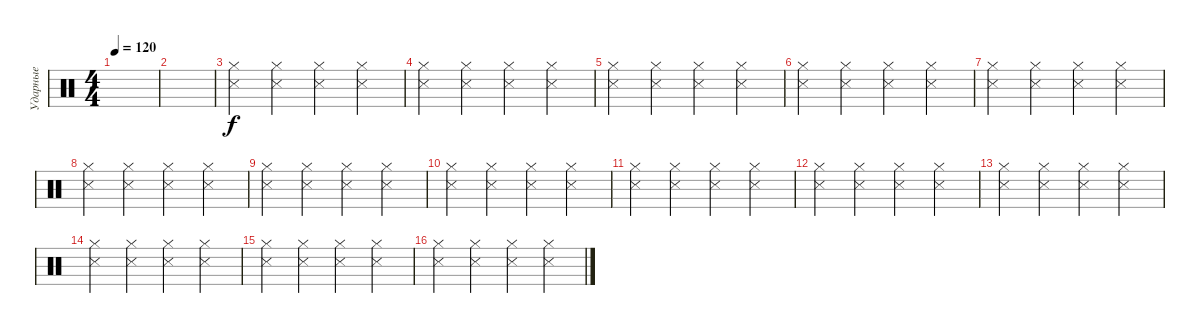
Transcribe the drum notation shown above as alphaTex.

\track ("Ударные" "Ударные") {instrument percussion}
\staff {score}
\articulation defaults
\ts (4 4)
\tempo 120
\clef neutral
\ks c
|
|
("Hi-Hat (closed)" "Snare (side stick) 3").4 ("Hi-Hat (closed)" "Snare (side stick) 3").4 ("Hi-Hat (closed)" "Snare (side stick) 3").4 ("Hi-Hat (closed)" "Snare (side stick) 3").4 |
("Hi-Hat (closed)" "Snare (side stick) 3").4 ("Hi-Hat (closed)" "Snare (side stick) 3").4 ("Hi-Hat (closed)" "Snare (side stick) 3").4 ("Hi-Hat (closed)" "Snare (side stick) 3").4 |
("Hi-Hat (closed)" "Snare (side stick) 3").4 ("Hi-Hat (closed)" "Snare (side stick) 3").4 ("Hi-Hat (closed)" "Snare (side stick) 3").4 ("Hi-Hat (closed)" "Snare (side stick) 3").4 |
("Hi-Hat (closed)" "Snare (side stick) 3").4 ("Hi-Hat (closed)" "Snare (side stick) 3").4 ("Hi-Hat (closed)" "Snare (side stick) 3").4 ("Hi-Hat (closed)" "Snare (side stick) 3").4 |
("Hi-Hat (closed)" "Snare (side stick) 3").4 ("Hi-Hat (closed)" "Snare (side stick) 3").4 ("Hi-Hat (closed)" "Snare (side stick) 3").4 ("Hi-Hat (closed)" "Snare (side stick) 3").4 |
("Hi-Hat (closed)" "Snare (side stick) 3").4 ("Hi-Hat (closed)" "Snare (side stick) 3").4 ("Hi-Hat (closed)" "Snare (side stick) 3").4 ("Hi-Hat (closed)" "Snare (side stick) 3").4 |
("Hi-Hat (closed)" "Snare (side stick) 3").4 ("Hi-Hat (closed)" "Snare (side stick) 3").4 ("Hi-Hat (closed)" "Snare (side stick) 3").4 ("Hi-Hat (closed)" "Snare (side stick) 3").4 |
("Hi-Hat (closed)" "Snare (side stick) 3").4 ("Hi-Hat (closed)" "Snare (side stick) 3").4 ("Hi-Hat (closed)" "Snare (side stick) 3").4 ("Hi-Hat (closed)" "Snare (side stick) 3").4 |
("Hi-Hat (closed)" "Snare (side stick) 3").4 ("Hi-Hat (closed)" "Snare (side stick) 3").4 ("Hi-Hat (closed)" "Snare (side stick) 3").4 ("Hi-Hat (closed)" "Snare (side stick) 3").4 |
("Hi-Hat (closed)" "Snare (side stick) 3").4 ("Hi-Hat (closed)" "Snare (side stick) 3").4 ("Hi-Hat (closed)" "Snare (side stick) 3").4 ("Hi-Hat (closed)" "Snare (side stick) 3").4 |
("Hi-Hat (closed)" "Snare (side stick) 3").4 ("Hi-Hat (closed)" "Snare (side stick) 3").4 ("Hi-Hat (closed)" "Snare (side stick) 3").4 ("Hi-Hat (closed)" "Snare (side stick) 3").4 |
("Hi-Hat (closed)" "Snare (side stick) 3").4 ("Hi-Hat (closed)" "Snare (side stick) 3").4 ("Hi-Hat (closed)" "Snare (side stick) 3").4 ("Hi-Hat (closed)" "Snare (side stick) 3").4 |
("Hi-Hat (closed)" "Snare (side stick) 3").4 ("Hi-Hat (closed)" "Snare (side stick) 3").4 ("Hi-Hat (closed)" "Snare (side stick) 3").4 ("Hi-Hat (closed)" "Snare (side stick) 3").4 |
("Hi-Hat (closed)" "Snare (side stick) 3").4 ("Hi-Hat (closed)" "Snare (side stick) 3").4 ("Hi-Hat (closed)" "Snare (side stick) 3").4 ("Hi-Hat (closed)" "Snare (side stick) 3").4
